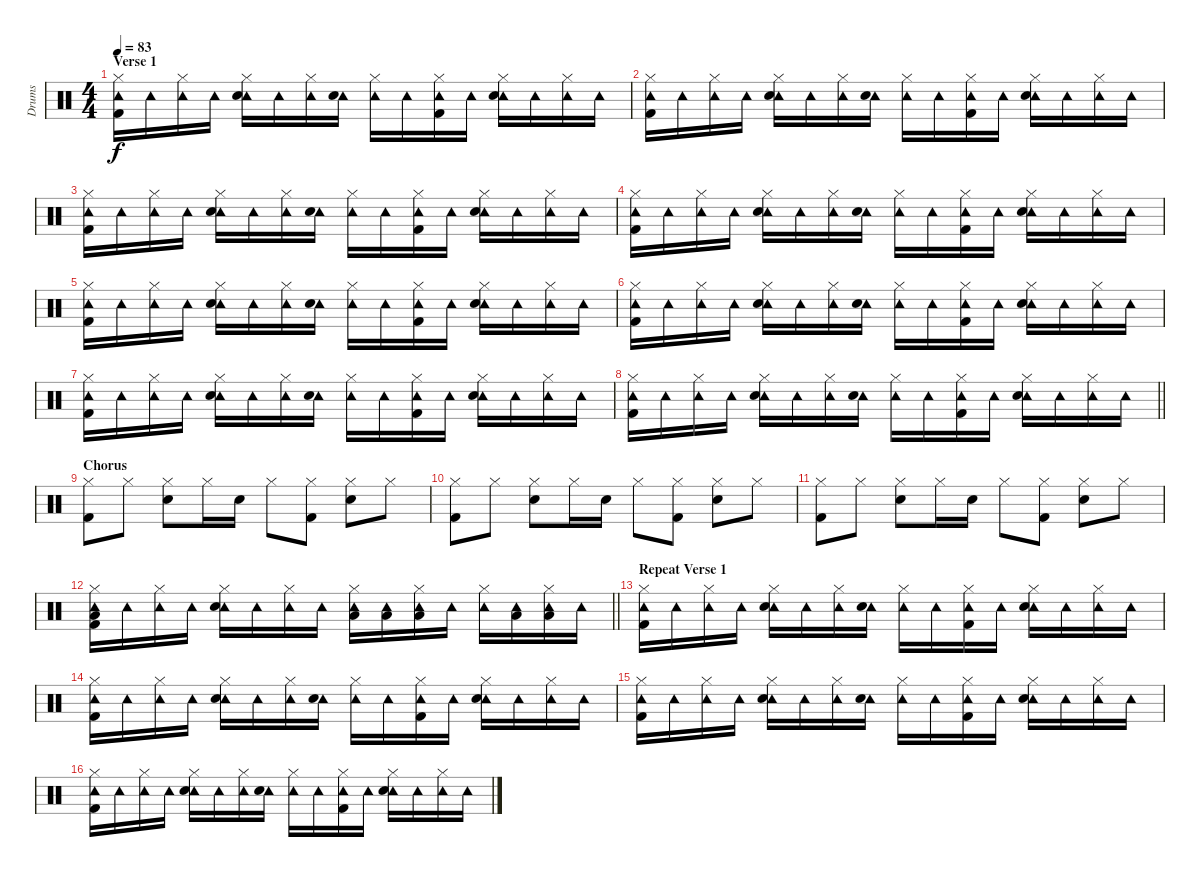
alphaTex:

\track ("Drums" "Drums") {instrument percussion}
\staff {score}
\articulation defaults
\ts (4 4)
\section ("" "Verse 1")
\tempo 83
\clef neutral
\ks c
("Tambourine (hit)" "Hi-Hat (closed)" "Kick (hit) 2").16{dy f} "Tambourine (hit)".16 ("Tambourine (hit)" "Hi-Hat (closed)").16 "Tambourine (hit)".16 ("Tambourine (hit)" "Hi-Hat (closed)" "Snare (hit) 2").16 "Tambourine (hit)".16 ("Tambourine (hit)" "Hi-Hat (closed)").16 ("Tambourine (hit)" "Snare (hit) 2").16 ("Tambourine (hit)" "Hi-Hat (closed)").16 "Tambourine (hit)".16 ("Tambourine (hit)" "Hi-Hat (closed)" "Kick (hit) 2").16 "Tambourine (hit)".16 ("Tambourine (hit)" "Hi-Hat (closed)" "Snare (hit) 2").16 "Tambourine (hit)".16 ("Tambourine (hit)" "Hi-Hat (closed)").16 "Tambourine (hit)".16 |
("Tambourine (hit)" "Hi-Hat (closed)" "Kick (hit) 2").16 "Tambourine (hit)".16 ("Tambourine (hit)" "Hi-Hat (closed)").16 "Tambourine (hit)".16 ("Tambourine (hit)" "Hi-Hat (closed)" "Snare (hit) 2").16 "Tambourine (hit)".16 ("Tambourine (hit)" "Hi-Hat (closed)").16 ("Tambourine (hit)" "Snare (hit) 2").16 ("Tambourine (hit)" "Hi-Hat (closed)").16 "Tambourine (hit)".16 ("Tambourine (hit)" "Hi-Hat (closed)" "Kick (hit) 2").16 "Tambourine (hit)".16 ("Tambourine (hit)" "Hi-Hat (closed)" "Snare (hit) 2").16 "Tambourine (hit)".16 ("Tambourine (hit)" "Hi-Hat (closed)").16 "Tambourine (hit)".16 |
("Tambourine (hit)" "Hi-Hat (closed)" "Kick (hit) 2").16 "Tambourine (hit)".16 ("Tambourine (hit)" "Hi-Hat (closed)").16 "Tambourine (hit)".16 ("Tambourine (hit)" "Hi-Hat (closed)" "Snare (hit) 2").16 "Tambourine (hit)".16 ("Tambourine (hit)" "Hi-Hat (closed)").16 ("Tambourine (hit)" "Snare (hit) 2").16 ("Tambourine (hit)" "Hi-Hat (closed)").16 "Tambourine (hit)".16 ("Tambourine (hit)" "Hi-Hat (closed)" "Kick (hit) 2").16 "Tambourine (hit)".16 ("Tambourine (hit)" "Hi-Hat (closed)" "Snare (hit) 2").16 "Tambourine (hit)".16 ("Tambourine (hit)" "Hi-Hat (closed)").16 "Tambourine (hit)".16 |
("Tambourine (hit)" "Hi-Hat (closed)" "Kick (hit) 2").16 "Tambourine (hit)".16 ("Tambourine (hit)" "Hi-Hat (closed)").16 "Tambourine (hit)".16 ("Tambourine (hit)" "Hi-Hat (closed)" "Snare (hit) 2").16 "Tambourine (hit)".16 ("Tambourine (hit)" "Hi-Hat (closed)").16 ("Tambourine (hit)" "Snare (hit) 2").16 ("Tambourine (hit)" "Hi-Hat (closed)").16 "Tambourine (hit)".16 ("Tambourine (hit)" "Hi-Hat (closed)" "Kick (hit) 2").16 "Tambourine (hit)".16 ("Tambourine (hit)" "Hi-Hat (closed)" "Snare (hit) 2").16 "Tambourine (hit)".16 ("Tambourine (hit)" "Hi-Hat (closed)").16 "Tambourine (hit)".16 |
("Tambourine (hit)" "Hi-Hat (closed)" "Kick (hit) 2").16 "Tambourine (hit)".16 ("Tambourine (hit)" "Hi-Hat (closed)").16 "Tambourine (hit)".16 ("Tambourine (hit)" "Hi-Hat (closed)" "Snare (hit) 2").16 "Tambourine (hit)".16 ("Tambourine (hit)" "Hi-Hat (closed)").16 ("Tambourine (hit)" "Snare (hit) 2").16 ("Tambourine (hit)" "Hi-Hat (closed)").16 "Tambourine (hit)".16 ("Tambourine (hit)" "Hi-Hat (closed)" "Kick (hit) 2").16 "Tambourine (hit)".16 ("Tambourine (hit)" "Hi-Hat (closed)" "Snare (hit) 2").16 "Tambourine (hit)".16 ("Tambourine (hit)" "Hi-Hat (closed)").16 "Tambourine (hit)".16 |
("Tambourine (hit)" "Hi-Hat (closed)" "Kick (hit) 2").16 "Tambourine (hit)".16 ("Tambourine (hit)" "Hi-Hat (closed)").16 "Tambourine (hit)".16 ("Tambourine (hit)" "Hi-Hat (closed)" "Snare (hit) 2").16 "Tambourine (hit)".16 ("Tambourine (hit)" "Hi-Hat (closed)").16 ("Tambourine (hit)" "Snare (hit) 2").16 ("Tambourine (hit)" "Hi-Hat (closed)").16 "Tambourine (hit)".16 ("Tambourine (hit)" "Hi-Hat (closed)" "Kick (hit) 2").16 "Tambourine (hit)".16 ("Tambourine (hit)" "Hi-Hat (closed)" "Snare (hit) 2").16 "Tambourine (hit)".16 ("Tambourine (hit)" "Hi-Hat (closed)").16 "Tambourine (hit)".16 |
("Tambourine (hit)" "Hi-Hat (closed)" "Kick (hit) 2").16 "Tambourine (hit)".16 ("Tambourine (hit)" "Hi-Hat (closed)").16 "Tambourine (hit)".16 ("Tambourine (hit)" "Hi-Hat (closed)" "Snare (hit) 2").16 "Tambourine (hit)".16 ("Tambourine (hit)" "Hi-Hat (closed)").16 ("Tambourine (hit)" "Snare (hit) 2").16 ("Tambourine (hit)" "Hi-Hat (closed)").16 "Tambourine (hit)".16 ("Tambourine (hit)" "Hi-Hat (closed)" "Kick (hit) 2").16 "Tambourine (hit)".16 ("Tambourine (hit)" "Hi-Hat (closed)" "Snare (hit) 2").16 "Tambourine (hit)".16 ("Tambourine (hit)" "Hi-Hat (closed)").16 "Tambourine (hit)".16 |
\barLineRight lightlight
("Tambourine (hit)" "Hi-Hat (closed)" "Kick (hit) 2").16 "Tambourine (hit)".16 ("Tambourine (hit)" "Hi-Hat (closed)").16 "Tambourine (hit)".16 ("Tambourine (hit)" "Hi-Hat (closed)" "Snare (hit) 2").16 "Tambourine (hit)".16 ("Tambourine (hit)" "Hi-Hat (closed)").16 ("Tambourine (hit)" "Snare (hit) 2").16 ("Tambourine (hit)" "Hi-Hat (closed)").16 "Tambourine (hit)".16 ("Tambourine (hit)" "Hi-Hat (closed)" "Kick (hit) 2").16 "Tambourine (hit)".16 ("Tambourine (hit)" "Hi-Hat (closed)" "Snare (hit) 2").16 "Tambourine (hit)".16 ("Tambourine (hit)" "Hi-Hat (closed)").16 "Tambourine (hit)".16 |
\section ("" "Chorus")
("Hi-Hat (closed)" "Kick (hit) 2").8 "Hi-Hat (closed)".8 ("Hi-Hat (closed)" "Snare (hit) 2").8 "Hi-Hat (closed)".16 "Snare (hit) 2".16 "Hi-Hat (closed)".8 ("Hi-Hat (closed)" "Kick (hit) 2").8 ("Hi-Hat (closed)" "Snare (hit) 2").8 "Hi-Hat (closed)".8 |
("Hi-Hat (closed)" "Kick (hit) 2").8 "Hi-Hat (closed)".8 ("Hi-Hat (closed)" "Snare (hit) 2").8 "Hi-Hat (closed)".16 "Snare (hit) 2".16 "Hi-Hat (closed)".8 ("Hi-Hat (closed)" "Kick (hit) 2").8 ("Hi-Hat (closed)" "Snare (hit) 2").8 "Hi-Hat (closed)".8 |
("Hi-Hat (closed)" "Kick (hit) 2").8 "Hi-Hat (closed)".8 ("Hi-Hat (closed)" "Snare (hit) 2").8 "Hi-Hat (closed)".16 "Snare (hit) 2".16 "Hi-Hat (closed)".8 ("Hi-Hat (closed)" "Kick (hit) 2").8 ("Hi-Hat (closed)" "Snare (hit) 2").8 "Hi-Hat (closed)".8 |
\barLineRight lightlight
("Tambourine (hit)" "Hi-Hat (closed)" "Low Tom (hit)" "Kick (hit) 2").16 "Tambourine (hit)".16 ("Tambourine (hit)" "Hi-Hat (closed)").16 "Tambourine (hit)".16 ("Tambourine (hit)" "Hi-Hat (closed)" "Snare (hit) 2").16 "Tambourine (hit)".16 ("Tambourine (hit)" "Hi-Hat (closed)").16 "Tambourine (hit)".16 ("Tambourine (hit)" "Hi-Hat (closed)" "Low Tom (hit)").16 ("Tambourine (hit)" "Low Tom (hit)").16 ("Tambourine (hit)" "Hi-Hat (closed)" "Low Tom (hit)").16 "Tambourine (hit)".16 ("Tambourine (hit)" "Hi-Hat (closed)").16 ("Tambourine (hit)" "Low Tom (hit)").16 ("Tambourine (hit)" "Hi-Hat (closed)" "Low Tom (hit)").16 "Tambourine (hit)".16 |
\section ("" "Repeat Verse 1")
("Tambourine (hit)" "Hi-Hat (closed)" "Kick (hit) 2").16 "Tambourine (hit)".16 ("Tambourine (hit)" "Hi-Hat (closed)").16 "Tambourine (hit)".16 ("Tambourine (hit)" "Hi-Hat (closed)" "Snare (hit) 2").16 "Tambourine (hit)".16 ("Tambourine (hit)" "Hi-Hat (closed)").16 ("Tambourine (hit)" "Snare (hit) 2").16 ("Tambourine (hit)" "Hi-Hat (closed)").16 "Tambourine (hit)".16 ("Tambourine (hit)" "Hi-Hat (closed)" "Kick (hit) 2").16 "Tambourine (hit)".16 ("Tambourine (hit)" "Hi-Hat (closed)" "Snare (hit) 2").16 "Tambourine (hit)".16 ("Tambourine (hit)" "Hi-Hat (closed)").16 "Tambourine (hit)".16 |
("Tambourine (hit)" "Hi-Hat (closed)" "Kick (hit) 2").16 "Tambourine (hit)".16 ("Tambourine (hit)" "Hi-Hat (closed)").16 "Tambourine (hit)".16 ("Tambourine (hit)" "Hi-Hat (closed)" "Snare (hit) 2").16 "Tambourine (hit)".16 ("Tambourine (hit)" "Hi-Hat (closed)").16 ("Tambourine (hit)" "Snare (hit) 2").16 ("Tambourine (hit)" "Hi-Hat (closed)").16 "Tambourine (hit)".16 ("Tambourine (hit)" "Hi-Hat (closed)" "Kick (hit) 2").16 "Tambourine (hit)".16 ("Tambourine (hit)" "Hi-Hat (closed)" "Snare (hit) 2").16 "Tambourine (hit)".16 ("Tambourine (hit)" "Hi-Hat (closed)").16 "Tambourine (hit)".16 |
("Tambourine (hit)" "Hi-Hat (closed)" "Kick (hit) 2").16 "Tambourine (hit)".16 ("Tambourine (hit)" "Hi-Hat (closed)").16 "Tambourine (hit)".16 ("Tambourine (hit)" "Hi-Hat (closed)" "Snare (hit) 2").16 "Tambourine (hit)".16 ("Tambourine (hit)" "Hi-Hat (closed)").16 ("Tambourine (hit)" "Snare (hit) 2").16 ("Tambourine (hit)" "Hi-Hat (closed)").16 "Tambourine (hit)".16 ("Tambourine (hit)" "Hi-Hat (closed)" "Kick (hit) 2").16 "Tambourine (hit)".16 ("Tambourine (hit)" "Hi-Hat (closed)" "Snare (hit) 2").16 "Tambourine (hit)".16 ("Tambourine (hit)" "Hi-Hat (closed)").16 "Tambourine (hit)".16 |
("Tambourine (hit)" "Hi-Hat (closed)" "Kick (hit) 2").16 "Tambourine (hit)".16 ("Tambourine (hit)" "Hi-Hat (closed)").16 "Tambourine (hit)".16 ("Tambourine (hit)" "Hi-Hat (closed)" "Snare (hit) 2").16 "Tambourine (hit)".16 ("Tambourine (hit)" "Hi-Hat (closed)").16 ("Tambourine (hit)" "Snare (hit) 2").16 ("Tambourine (hit)" "Hi-Hat (closed)").16 "Tambourine (hit)".16 ("Tambourine (hit)" "Hi-Hat (closed)" "Kick (hit) 2").16 "Tambourine (hit)".16 ("Tambourine (hit)" "Hi-Hat (closed)" "Snare (hit) 2").16 "Tambourine (hit)".16 ("Tambourine (hit)" "Hi-Hat (closed)").16 "Tambourine (hit)".16
